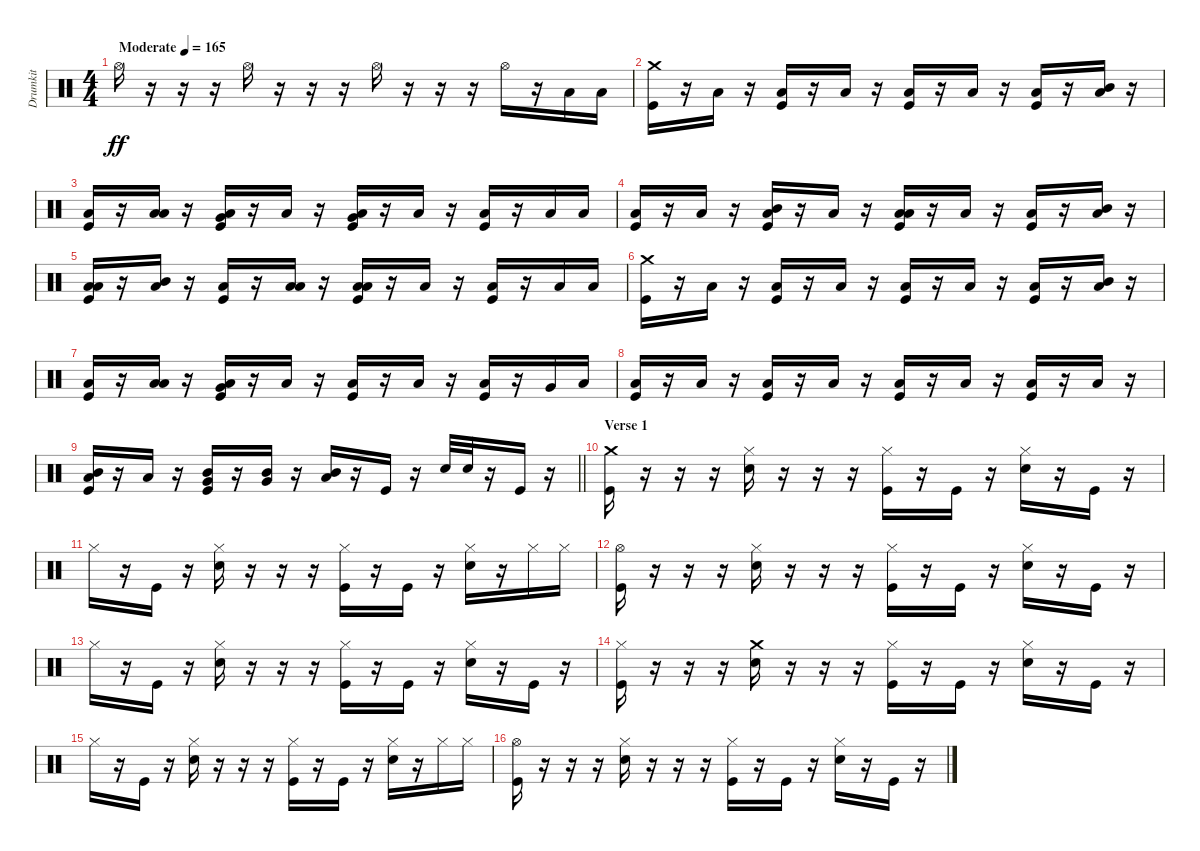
\track ("Drumkit" "Drumkit") {instrument percussion}
\staff {score}
\articulation defaults
\ts (4 4)
\tempo (165 "Moderate")
\clef neutral
\ks c "Hi-Hat (open)".16{dy ff}
r.16 r.16 r.16 "Hi-Hat (open)".16 r.16 r.16 r.16 "Hi-Hat (open)".16 r.16 r.16 r.16 "Hi-Hat (open)".16 r.16 "Low Tom (hit)".16 "Low Tom (hit)".16 |
("Crash medium (hit)" "Kick (hit)").16 r.16 "Low Floor Tom (hit)".16 r.16 ("Low Floor Tom (hit)" "Kick (hit)").16 r.16 "Low Floor Tom (hit)".16 r.16 ("Low Floor Tom (hit)" "Kick (hit)").16 r.16 "Low Floor Tom (hit)".16 r.16 ("Low Floor Tom (hit)" "Kick (hit)").16 r.16 ("Mid Tom (hit)" "Low Floor Tom (hit)").16 r.16 |
("Low Floor Tom (hit)" "Kick (hit)").16 r.16 ("Low Tom (hit)" "Low Floor Tom (hit)").16 r.16 ("Very Low Tom (hit)" "Low Floor Tom (hit)" "Kick (hit)").16 r.16 "Low Floor Tom (hit)".16 r.16 ("Very Low Tom (hit)" "Low Floor Tom (hit)" "Kick (hit)").16 r.16 "Low Floor Tom (hit)".16 r.16 ("Low Floor Tom (hit)" "Kick (hit)").16 r.16 "Low Floor Tom (hit)".16 "Low Tom (hit)".16 |
("Low Floor Tom (hit)" "Kick (hit)").16 r.16 "Low Floor Tom (hit)".16 r.16 ("Mid Tom (hit)" "Low Floor Tom (hit)" "Kick (hit)").16 r.16 "Low Floor Tom (hit)".16 r.16 ("Low Tom (hit)" "Low Floor Tom (hit)" "Kick (hit)").16 r.16 "Low Floor Tom (hit)".16 r.16 ("Low Floor Tom (hit)" "Kick (hit)").16 r.16 ("Mid Tom (hit)" "Low Floor Tom (hit)").16 r.16 |
("Low Tom (hit)" "Low Floor Tom (hit)" "Kick (hit)").16 r.16 ("Mid Tom (hit)" "Low Floor Tom (hit)").16 r.16 ("Low Floor Tom (hit)" "Kick (hit)").16 r.16 ("Low Tom (hit)" "Low Floor Tom (hit)").16 r.16 ("Low Tom (hit)" "Low Floor Tom (hit)" "Kick (hit)").16 r.16 "Low Floor Tom (hit)".16 r.16 ("Low Floor Tom (hit)" "Kick (hit)").16 r.16 "Low Tom (hit)".16 "Low Tom (hit)".16 |
("Crash medium (hit)" "Kick (hit)").16 r.16 "Low Floor Tom (hit)".16 r.16 ("Low Floor Tom (hit)" "Kick (hit)").16 r.16 "Low Floor Tom (hit)".16 r.16 ("Low Floor Tom (hit)" "Kick (hit)").16 r.16 "Low Floor Tom (hit)".16 r.16 ("Low Floor Tom (hit)" "Kick (hit)").16 r.16 ("Mid Tom (hit)" "Low Floor Tom (hit)").16 r.16 |
("Low Floor Tom (hit)" "Kick (hit)").16 r.16 ("Low Tom (hit)" "Low Floor Tom (hit)").16 r.16 ("Very Low Tom (hit)" "Low Floor Tom (hit)" "Kick (hit)").16 r.16 "Low Floor Tom (hit)".16 r.16 ("Low Floor Tom (hit)" "Kick (hit)").16 r.16 "Low Floor Tom (hit)".16 r.16 ("Low Floor Tom (hit)" "Kick (hit)").16 r.16 "Very Low Tom (hit)".16 "Low Floor Tom (hit)".16 |
("Low Floor Tom (hit)" "Kick (hit)").16 r.16 "Low Floor Tom (hit)".16 r.16 ("Low Floor Tom (hit)" "Kick (hit)").16 r.16 "Low Floor Tom (hit)".16 r.16 ("Low Floor Tom (hit)" "Kick (hit)").16 r.16 "Low Floor Tom (hit)".16 r.16 ("Low Floor Tom (hit)" "Kick (hit)").16 r.16 "Low Floor Tom (hit)".16 r.16 |
\barLineRight lightlight
("Mid Tom (hit)" "Low Floor Tom (hit)" "Kick (hit)").16 r.16 "Low Floor Tom (hit)".16 r.16 ("Mid Tom (hit)" "Very Low Tom (hit)" "Kick (hit)").16 r.16 ("Mid Tom (hit)" "Very Low Tom (hit)").16 r.16 ("Mid Tom (hit)" "Low Floor Tom (hit)").16 r.16 "Kick (hit)".16 r.16 "Snare (hit) 2".32 "Snare (hit) 2".32 r.16 "Kick (hit)".16 r.16 |
\section ("" "Verse 1")
("Crash medium (hit)" "Kick (hit)").16 r.16 r.16 r.16 ("Hi-Hat (closed)" "Snare (hit) 2").16 r.16 r.16 r.16 ("Hi-Hat (closed)" "Kick (hit)").16 r.16 "Kick (hit)".16 r.16 ("Hi-Hat (closed)" "Snare (hit) 2").16 r.16 "Kick (hit)".16 r.16 |
"Hi-Hat (closed)".16 r.16 "Kick (hit)".16 r.16 ("Hi-Hat (closed)" "Snare (hit) 2").16 r.16 r.16 r.16 ("Hi-Hat (closed)" "Kick (hit)").16 r.16 "Kick (hit)".16 r.16 ("Hi-Hat (closed)" "Snare (hit) 2").16 r.16 "Hi-Hat (closed)".16 "Hi-Hat (closed)".16 |
("Hi-Hat (open)" "Kick (hit)").16 r.16 r.16 r.16 ("Hi-Hat (closed)" "Snare (hit) 2").16 r.16 r.16 r.16 ("Hi-Hat (closed)" "Kick (hit)").16 r.16 "Kick (hit)".16 r.16 ("Hi-Hat (closed)" "Snare (hit) 2").16 r.16 "Kick (hit)".16 r.16 |
"Hi-Hat (closed)".16 r.16 "Kick (hit)".16 r.16 ("Hi-Hat (closed)" "Snare (hit) 2").16 r.16 r.16 r.16 ("Hi-Hat (closed)" "Kick (hit)").16 r.16 "Kick (hit)".16 r.16 ("Hi-Hat (closed)" "Snare (hit) 2").16 r.16 "Kick (hit)".16 r.16 |
("Hi-Hat (closed)" "Kick (hit)").16 r.16 r.16 r.16 ("Crash medium (hit)" "Snare (hit) 2").16 r.16 r.16 r.16 ("Hi-Hat (closed)" "Kick (hit)").16 r.16 "Kick (hit)".16 r.16 ("Hi-Hat (closed)" "Snare (hit) 2").16 r.16 "Kick (hit)".16 r.16 |
"Hi-Hat (closed)".16 r.16 "Kick (hit)".16 r.16 ("Hi-Hat (closed)" "Snare (hit) 2").16 r.16 r.16 r.16 ("Hi-Hat (closed)" "Kick (hit)").16 r.16 "Kick (hit)".16 r.16 ("Hi-Hat (closed)" "Snare (hit) 2").16 r.16 "Hi-Hat (closed)".16 "Hi-Hat (closed)".16 |
("Hi-Hat (open)" "Kick (hit)").16 r.16 r.16 r.16 ("Hi-Hat (closed)" "Snare (hit) 2").16 r.16 r.16 r.16 ("Hi-Hat (closed)" "Kick (hit)").16 r.16 "Kick (hit)".16 r.16 ("Hi-Hat (closed)" "Snare (hit) 2").16 r.16 "Kick (hit)".16 r.16
